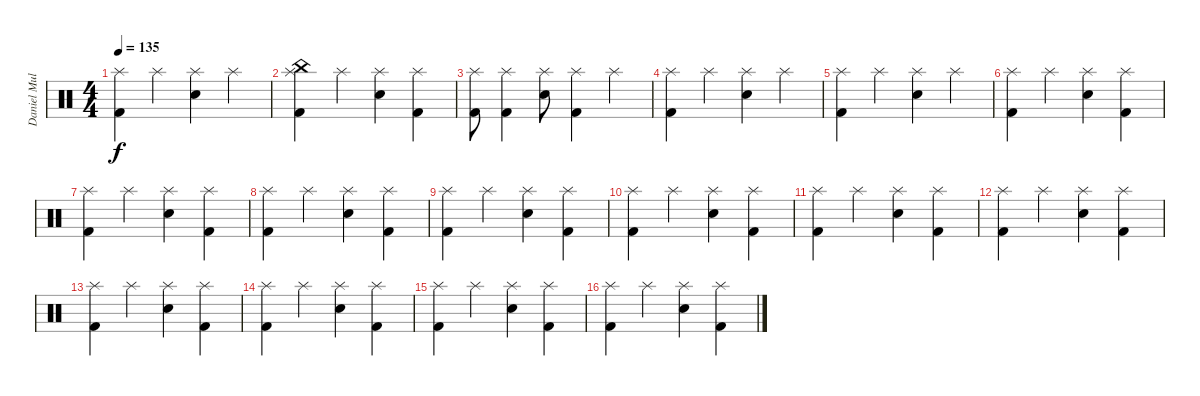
\track ("Daniel Mullback" "Daniel Mul") {instrument percussion}
\staff {score}
\articulation defaults
\ts (4 4)
\tempo 135
\clef neutral
\ks c
("Splash (hit)" "Kick (hit) 2").4{dy f} "Splash (hit)".4 ("Splash (hit)" "Snare (hit) 2").4 "Splash (hit)".4 |
("Splash (hit)" "China (hit)" "Kick (hit) 2").4 "Splash (hit)".4 ("Splash (hit)" "Snare (hit) 2").4 ("Splash (hit)" "Kick (hit) 2").4 |
("Splash (hit)" "Kick (hit) 2").8 ("Splash (hit)" "Kick (hit) 2").4 ("Splash (hit)" "Snare (hit) 2").8 ("Splash (hit)" "Kick (hit) 2").4 "Splash (hit)".4 |
("Splash (hit)" "Kick (hit) 2").4 "Splash (hit)".4 ("Splash (hit)" "Snare (hit) 2").4 "Splash (hit)".4 |
("Splash (hit)" "Kick (hit) 2").4 "Splash (hit)".4 ("Splash (hit)" "Snare (hit) 2").4 "Splash (hit)".4 |
("Splash (hit)" "Kick (hit) 2").4 "Splash (hit)".4 ("Splash (hit)" "Snare (hit) 2").4 ("Splash (hit)" "Kick (hit) 2").4 |
("Splash (hit)" "Kick (hit) 2").4 "Splash (hit)".4 ("Splash (hit)" "Snare (hit) 2").4 ("Splash (hit)" "Kick (hit) 2").4 |
("Splash (hit)" "Kick (hit) 2").4 "Splash (hit)".4 ("Splash (hit)" "Snare (hit) 2").4 ("Splash (hit)" "Kick (hit) 2").4 |
("Splash (hit)" "Kick (hit) 2").4 "Splash (hit)".4 ("Splash (hit)" "Snare (hit) 2").4 ("Splash (hit)" "Kick (hit) 2").4 |
("Splash (hit)" "Kick (hit) 2").4 "Splash (hit)".4 ("Splash (hit)" "Snare (hit) 2").4 ("Splash (hit)" "Kick (hit) 2").4 |
("Splash (hit)" "Kick (hit) 2").4 "Splash (hit)".4 ("Splash (hit)" "Snare (hit) 2").4 ("Splash (hit)" "Kick (hit) 2").4 |
("Splash (hit)" "Kick (hit) 2").4 "Splash (hit)".4 ("Splash (hit)" "Snare (hit) 2").4 ("Splash (hit)" "Kick (hit) 2").4 |
("Splash (hit)" "Kick (hit) 2").4 "Splash (hit)".4 ("Splash (hit)" "Snare (hit) 2").4 ("Splash (hit)" "Kick (hit) 2").4 |
("Splash (hit)" "Kick (hit) 2").4 "Splash (hit)".4 ("Splash (hit)" "Snare (hit) 2").4 ("Splash (hit)" "Kick (hit) 2").4 |
("Splash (hit)" "Kick (hit) 2").4 "Splash (hit)".4 ("Splash (hit)" "Snare (hit) 2").4 ("Splash (hit)" "Kick (hit) 2").4 |
("Splash (hit)" "Kick (hit) 2").4 "Splash (hit)".4 ("Splash (hit)" "Snare (hit) 2").4 ("Splash (hit)" "Kick (hit) 2").4
